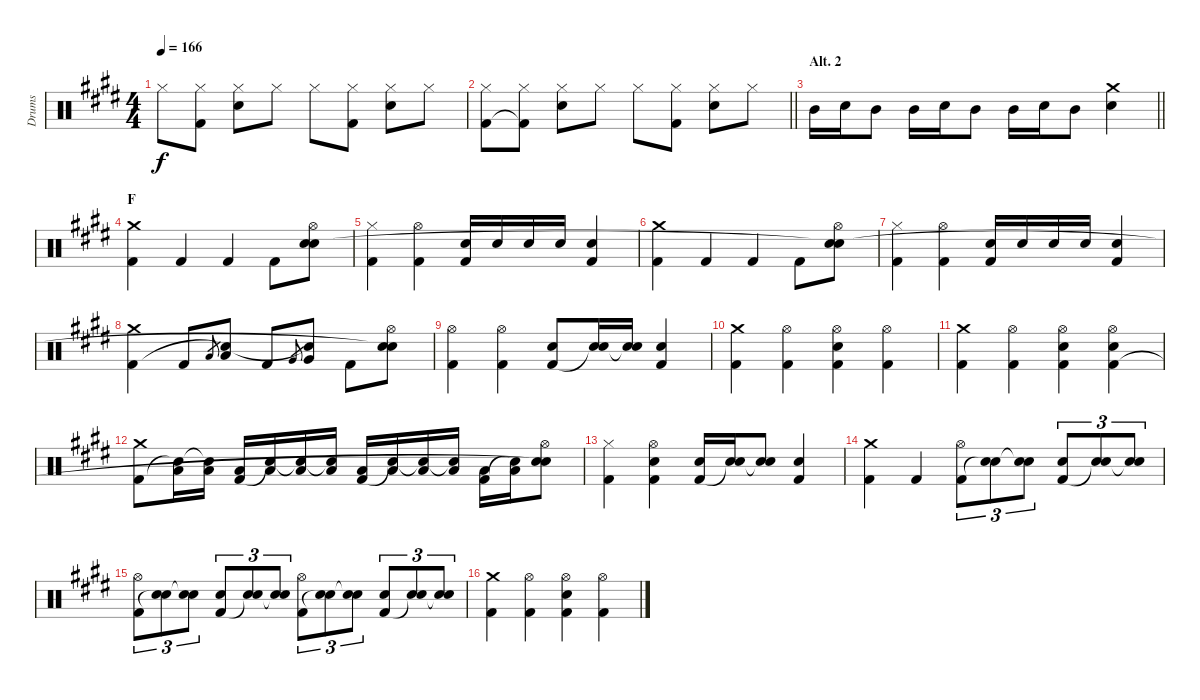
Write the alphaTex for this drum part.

\track ("Drums" "Drums") {instrument percussion}
\staff {score}
\articulation defaults
\ts (4 4)
\tempo 166
\clef neutral
\ks e "Hi-Hat (closed)".8{dy f}
("Hi-Hat (closed)" "Kick (hit) 2").8 ("Hi-Hat (closed)" "Snare (hit) 2").8 "Hi-Hat (closed)".8 "Hi-Hat (closed)".8 ("Hi-Hat (closed)" "Kick (hit) 2").8 ("Hi-Hat (closed)" "Snare (hit) 2").8 "Hi-Hat (closed)".8 |
\barLineRight lightlight
("Hi-Hat (closed)" "Kick (hit) 2").8 ("Hi-Hat (closed)" "Kick (hit) 2"{t}).8 ("Hi-Hat (closed)" "Snare (hit) 2").8 "Hi-Hat (closed)".8 "Hi-Hat (closed)".8 ("Hi-Hat (closed)" "Kick (hit) 2").8 ("Hi-Hat (closed)" "Snare (hit) 2").8 "Hi-Hat (closed)".8 |
\section ("" "Alt. 2")
\barLineRight lightlight "Mid Tom (hit)".16 "Snare (hit) 2".16 "Mid Tom (hit)".8 "Mid Tom (hit)".16 "Snare (hit) 2".16 "Mid Tom (hit)".8 "Mid Tom (hit)".16 "Snare (hit) 2".16 "Mid Tom (hit)".8
("Crash medium (hit)" "Snare (hit) 2").4 |
\section ("" "F")
("Crash medium (hit)" "Kick (hit) 2").4 "Kick (hit) 2".4 "Kick (hit) 2".4 "Kick (hit) 2".8 ("Hi-Hat (open)" "Snare (hit) 2" "Snare (hit)").8 |
("Hi-Hat (closed)" "Kick (hit) 2").4 ("Hi-Hat (open)" "Kick (hit) 2").4 ("Snare (hit) 2" "Kick (hit) 2").16 "Snare (hit) 2".16 "Snare (hit) 2".16 "Snare (hit) 2".16 ("Snare (hit) 2" "Kick (hit) 2").4 |
("Crash medium (hit)" "Kick (hit) 2").4 "Kick (hit) 2".4 "Kick (hit) 2".4 "Kick (hit) 2".8 ("Hi-Hat (open)" "Snare (hit) 2" "Snare (hit)"{t}).8 |
("Hi-Hat (closed)" "Kick (hit) 2").4 ("Hi-Hat (open)" "Kick (hit) 2").4 ("Snare (hit) 2" "Kick (hit) 2").16 "Snare (hit) 2".16 "Snare (hit) 2".16 "Snare (hit) 2".16 ("Snare (hit) 2" "Kick (hit) 2").4 |
("Crash medium (hit)" "Kick (hit) 2").4 "Kick (hit) 2".8 "Low Tom (hit)".8{gr} ("Low Tom (hit)" "Snare (hit)"{t}).8 "Kick (hit) 2".8 "Very Low Tom (hit)".8{gr} ("Very Low Tom (hit)" "Snare (hit)"{t}).8 "Kick (hit) 2".8 ("Hi-Hat (open)" "Snare (hit) 2" "Snare (hit)"{t}).8 |
("Hi-Hat (open)" "Kick (hit) 2").4 ("Hi-Hat (open)" "Kick (hit) 2").4 ("Snare (hit) 2" "Kick (hit) 2").8 ("Snare (hit) 2" "Snare (hit)"{t}).16 ("Snare (hit) 2" "Snare (hit)"{t}).16 ("Snare (hit) 2" "Kick (hit) 2").4 |
("Crash medium (hit)" "Kick (hit) 2").4 ("Hi-Hat (open)" "Kick (hit) 2").4 ("Hi-Hat (open)" "Snare (hit) 2" "Kick (hit) 2").4 ("Hi-Hat (open)" "Kick (hit) 2").4 |
("Crash medium (hit)" "Kick (hit) 2").4 ("Hi-Hat (open)" "Kick (hit) 2").4 ("Hi-Hat (open)" "Snare (hit) 2" "Kick (hit) 2").4 ("Hi-Hat (open)" "Snare (hit) 2" "Kick (hit) 2").4 |
("Crash medium (hit)" "Kick (hit) 2").8 ("Low Tom (hit)" "Snare (hit)"{t}).16 ("Low Tom (hit)" "Snare (hit)"{t}).16 ("Low Tom (hit)" "Kick (hit) 2").16 ("Low Tom (hit)" "Snare (hit)"{t}).16 ("Low Tom (hit)" "Snare (hit)"{t}).16 ("Low Tom (hit)" "Snare (hit)"{t}).16 ("Low Tom (hit)" "Kick (hit) 2").16 ("Low Tom (hit)" "Snare (hit)"{t}).16 ("Low Tom (hit)" "Snare (hit)"{t}).16 ("Low Tom (hit)" "Snare (hit)"{t}).16 ("Low Tom (hit)" "Kick (hit) 2").16 ("Low Tom (hit)" "Snare (hit)"{t}).16 ("Hi-Hat (open)" "Snare (hit) 2" "Snare (hit)"{t}).8 |
("Hi-Hat (closed)" "Kick (hit) 2").4 ("Hi-Hat (open)" "Snare (hit) 2" "Kick (hit) 2").4 ("Snare (hit) 2" "Kick (hit) 2").16 ("Snare (hit) 2" "Snare (hit)"{t}).16 ("Snare (hit) 2" "Snare (hit)"{t}).8 ("Snare (hit) 2" "Kick (hit) 2").4 |
("Crash medium (hit)" "Kick (hit) 2").4 "Kick (hit) 2".4 ("Hi-Hat (open)" "Kick (hit) 2").8{tu (3 2)} ("Snare (hit) 2" "Snare (hit)"{t}).8{tu (3 2)} ("Snare (hit) 2" "Snare (hit)"{t}).8{tu (3 2)} ("Snare (hit) 2" "Kick (hit) 2").8{tu (3 2)} ("Snare (hit) 2" "Snare (hit)"{t}).8{tu (3 2)} ("Snare (hit) 2" "Snare (hit)"{t}).8{tu (3 2)} |
("Hi-Hat (open)" "Kick (hit) 2").8{tu (3 2)} ("Snare (hit) 2" "Snare (hit)"{t}).8{tu (3 2)} ("Snare (hit) 2" "Snare (hit)"{t}).8{tu (3 2)} ("Snare (hit) 2" "Kick (hit) 2").8{tu (3 2)} ("Snare (hit) 2" "Snare (hit)"{t}).8{tu (3 2)} ("Snare (hit) 2" "Snare (hit)"{t}).8{tu (3 2)} ("Hi-Hat (open)" "Kick (hit) 2").8{tu (3 2)} ("Snare (hit) 2" "Snare (hit)"{t}).8{tu (3 2)} ("Snare (hit) 2" "Snare (hit)"{t}).8{tu (3 2)} ("Snare (hit) 2" "Kick (hit) 2").8{tu (3 2)} ("Snare (hit) 2" "Snare (hit)"{t}).8{tu (3 2)} ("Snare (hit) 2" "Snare (hit)"{t}).8{tu (3 2)} |
("Crash medium (hit)" "Kick (hit) 2").4 ("Hi-Hat (open)" "Kick (hit) 2").4 ("Hi-Hat (open)" "Snare (hit) 2" "Kick (hit) 2").4 ("Hi-Hat (open)" "Kick (hit) 2").4
